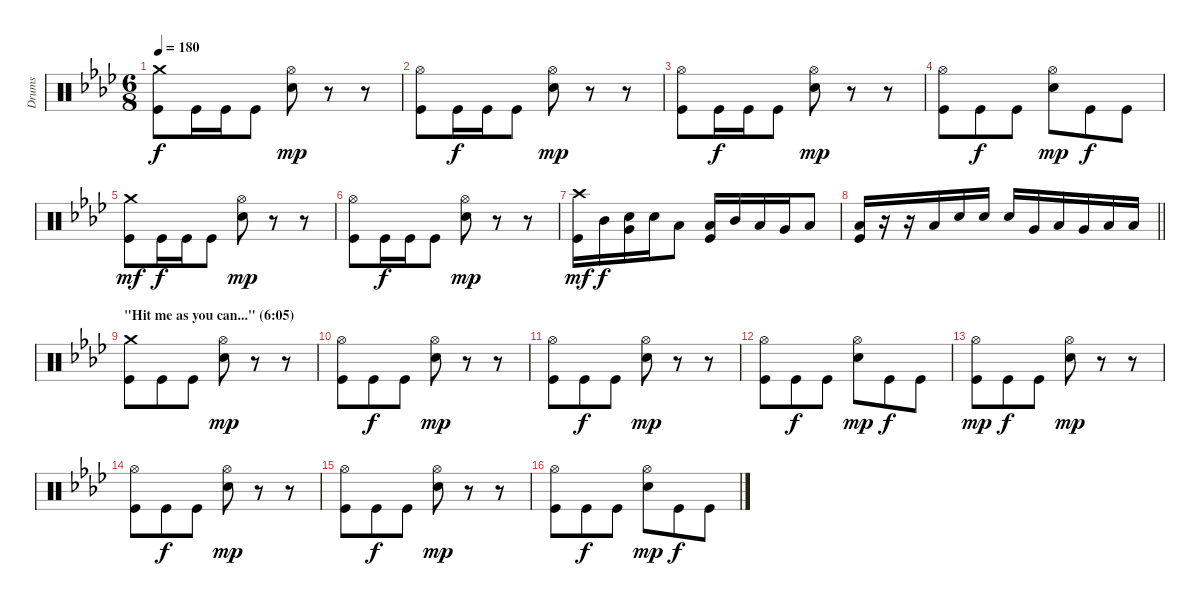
\track ("Drums" "Drums") {instrument percussion}
\staff {score}
\articulation defaults
\ts (6 8)
\tempo 180
\clef neutral
\ks fminor
("Crash medium (hit)" "Kick (hit)").8{dy f} "Kick (hit)".16 "Kick (hit)".16 "Kick (hit)".8 ("Hi-Hat (open)" "Snare (hit) 2").8{dy mp} r.8 r.8 |
("Hi-Hat (open)" "Kick (hit)").8 "Kick (hit)".16{dy f} "Kick (hit)".16 "Kick (hit)".8 ("Hi-Hat (open)" "Snare (hit) 2").8{dy mp} r.8 r.8 |
("Hi-Hat (open)" "Kick (hit)").8 "Kick (hit)".16{dy f} "Kick (hit)".16 "Kick (hit)".8 ("Hi-Hat (open)" "Snare (hit) 2").8{dy mp} r.8 r.8 |
("Hi-Hat (open)" "Kick (hit)").8 "Kick (hit)".8{dy f} "Kick (hit)".8 ("Hi-Hat (open)" "Snare (hit) 2").8{dy mp} "Kick (hit)".8{dy f} "Kick (hit)".8 |
("Crash medium (hit)" "Kick (hit)").8{dy mf} "Kick (hit)".16{dy f} "Kick (hit)".16 "Kick (hit)".8 ("Hi-Hat (open)" "Snare (hit) 2").8{dy mp} r.8 r.8 |
("Hi-Hat (open)" "Kick (hit)").8 "Kick (hit)".16{dy f} "Kick (hit)".16 "Kick (hit)".8 ("Hi-Hat (open)" "Snare (hit) 2").8{dy mp} r.8 r.8 |
("Crash high (hit)" "Kick (hit)").16{dy mf} "Mid Tom (hit)".16{dy f} ("Very Low Tom (hit)" "Snare (hit) 2").16 "Snare (hit) 2".16 "Low Floor Tom (hit)".8 ("Low Tom (hit)" "Kick (hit)").16 "Mid Tom (hit)".16 "Low Tom (hit)".16 "Very Low Tom (hit)".16 "Low Floor Tom (hit)".8 |
\barLineRight lightlight
("Low Floor Tom (hit)" "Kick (hit)").16 r.16 r.16 "Low Floor Tom (hit)".16 "Snare (hit) 2".16 "Snare (hit) 2".16 "Snare (hit) 2".16 "Very Low Tom (hit)".16 "Low Tom (hit)".16 "Very Low Tom (hit)".16 "Low Floor Tom (hit)".16 "Low Floor Tom (hit)".16 |
\section ("" "\"Hit me as you can...\" (6:05)")
("Crash medium (hit)" "Kick (hit)").8 "Kick (hit)".8 "Kick (hit)".8 ("Hi-Hat (open)" "Snare (hit) 2").8{dy mp} r.8 r.8 |
("Hi-Hat (open)" "Kick (hit)").8 "Kick (hit)".8{dy f} "Kick (hit)".8 ("Hi-Hat (open)" "Snare (hit) 2").8{dy mp} r.8 r.8 |
("Hi-Hat (open)" "Kick (hit)").8 "Kick (hit)".8{dy f} "Kick (hit)".8 ("Hi-Hat (open)" "Snare (hit) 2").8{dy mp} r.8 r.8 |
("Hi-Hat (open)" "Kick (hit)").8 "Kick (hit)".8{dy f} "Kick (hit)".8 ("Hi-Hat (open)" "Snare (hit) 2").8{dy mp} "Kick (hit)".8{dy f} "Kick (hit)".8 |
("Hi-Hat (open)" "Kick (hit)").8{dy mp} "Kick (hit)".8{dy f} "Kick (hit)".8 ("Hi-Hat (open)" "Snare (hit) 2").8{dy mp} r.8 r.8 |
("Hi-Hat (open)" "Kick (hit)").8 "Kick (hit)".8{dy f} "Kick (hit)".8 ("Hi-Hat (open)" "Snare (hit) 2").8{dy mp} r.8 r.8 |
("Hi-Hat (open)" "Kick (hit)").8 "Kick (hit)".8{dy f} "Kick (hit)".8 ("Hi-Hat (open)" "Snare (hit) 2").8{dy mp} r.8 r.8 |
("Hi-Hat (open)" "Kick (hit)").8 "Kick (hit)".8{dy f} "Kick (hit)".8 ("Hi-Hat (open)" "Snare (hit) 2").8{dy mp} "Kick (hit)".8{dy f} "Kick (hit)".8
